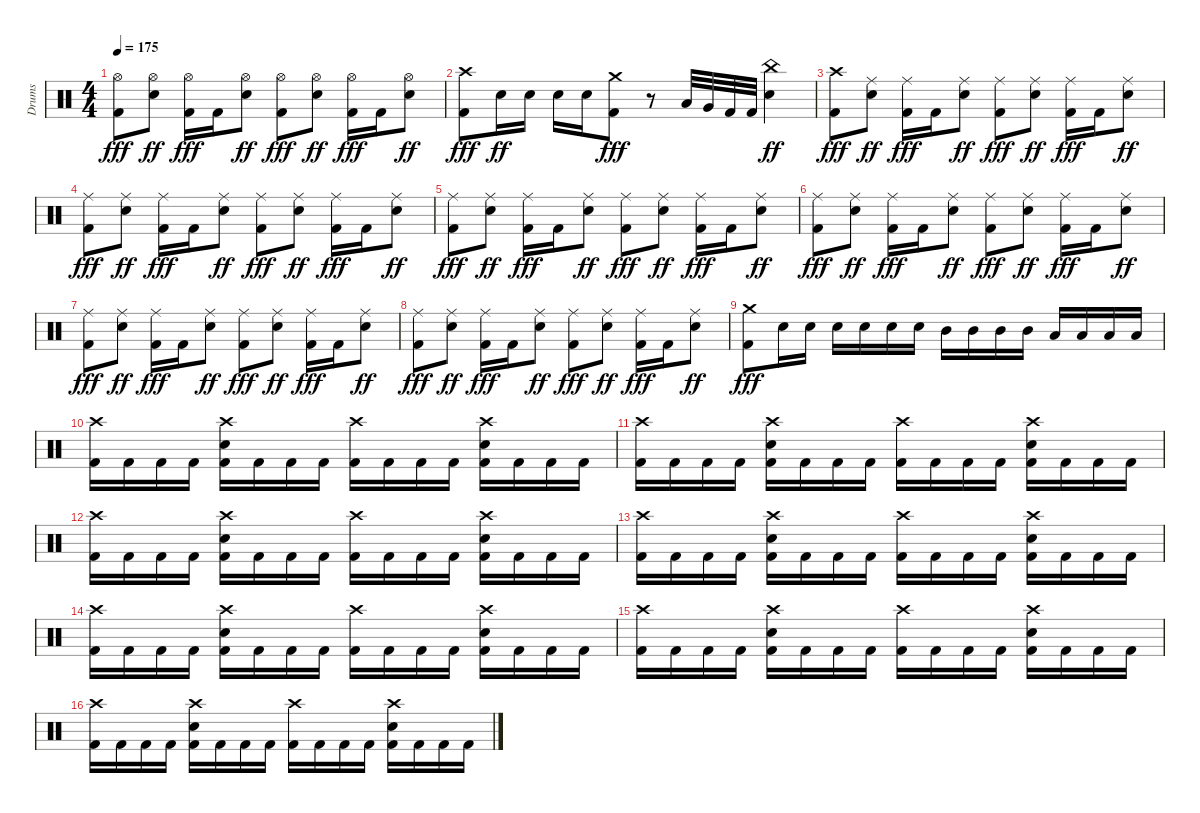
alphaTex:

\track ("Drums" "Drums") {instrument percussion}
\staff {score}
\articulation defaults
\ts (4 4)
\tempo 175
\clef neutral
\ks c
("Hi-Hat (open)" "Kick (hit) 2").8{dy fff} ("Hi-Hat (open)" "Snare (hit) 2").8{dy ff} ("Hi-Hat (open)" "Kick (hit) 2").16{dy fff} "Kick (hit) 2".16 ("Hi-Hat (open)" "Snare (hit) 2").8{dy ff} ("Hi-Hat (open)" "Kick (hit) 2").8{dy fff} ("Hi-Hat (open)" "Snare (hit) 2").8{dy ff} ("Hi-Hat (open)" "Kick (hit) 2").16{dy fff} "Kick (hit) 2".16 ("Hi-Hat (open)" "Snare (hit) 2").8{dy ff} |
("Crash high (hit)" "Kick (hit) 2").8{dy fff} "Snare (hit) 2".16{dy ff} "Snare (hit) 2".16 "Snare (hit) 2".16 "Snare (hit) 2".16 ("Crash medium (hit)" "Kick (hit) 2").8{dy fff} r.8 "Low Floor Tom (hit)".32 "Very Low Tom (hit)".32 "Kick (hit) 2".32 "Kick (hit) 2".32 ("China (hit)" "Snare (hit) 2").4{dy ff} |
("Crash high (hit)" "Kick (hit) 2").8{dy fff} ("Ride (middle)" "Snare (hit) 2").8{dy ff} ("Ride (middle)" "Kick (hit) 2").16{dy fff} "Kick (hit) 2".16 ("Ride (middle)" "Snare (hit) 2").8{dy ff} ("Ride (middle)" "Kick (hit) 2").8{dy fff} ("Ride (middle)" "Snare (hit) 2").8{dy ff} ("Ride (middle)" "Kick (hit) 2").16{dy fff} "Kick (hit) 2".16 ("Ride (middle)" "Snare (hit) 2").8{dy ff} |
("Ride (middle)" "Kick (hit) 2").8{dy fff} ("Ride (middle)" "Snare (hit) 2").8{dy ff} ("Ride (middle)" "Kick (hit) 2").16{dy fff} "Kick (hit) 2".16 ("Ride (middle)" "Snare (hit) 2").8{dy ff} ("Ride (middle)" "Kick (hit) 2").8{dy fff} ("Ride (middle)" "Snare (hit) 2").8{dy ff} ("Ride (middle)" "Kick (hit) 2").16{dy fff} "Kick (hit) 2".16 ("Ride (middle)" "Snare (hit) 2").8{dy ff} |
("Ride (middle)" "Kick (hit) 2").8{dy fff} ("Ride (middle)" "Snare (hit) 2").8{dy ff} ("Ride (middle)" "Kick (hit) 2").16{dy fff} "Kick (hit) 2".16 ("Ride (middle)" "Snare (hit) 2").8{dy ff} ("Ride (middle)" "Kick (hit) 2").8{dy fff} ("Ride (middle)" "Snare (hit) 2").8{dy ff} ("Ride (middle)" "Kick (hit) 2").16{dy fff} "Kick (hit) 2".16 ("Ride (middle)" "Snare (hit) 2").8{dy ff} |
("Ride (middle)" "Kick (hit) 2").8{dy fff} ("Ride (middle)" "Snare (hit) 2").8{dy ff} ("Ride (middle)" "Kick (hit) 2").16{dy fff} "Kick (hit) 2".16 ("Ride (middle)" "Snare (hit) 2").8{dy ff} ("Ride (middle)" "Kick (hit) 2").8{dy fff} ("Ride (middle)" "Snare (hit) 2").8{dy ff} ("Ride (middle)" "Kick (hit) 2").16{dy fff} "Kick (hit) 2".16 ("Ride (middle)" "Snare (hit) 2").8{dy ff} |
("Ride (middle)" "Kick (hit) 2").8{dy fff} ("Ride (middle)" "Snare (hit) 2").8{dy ff} ("Ride (middle)" "Kick (hit) 2").16{dy fff} "Kick (hit) 2".16 ("Ride (middle)" "Snare (hit) 2").8{dy ff} ("Ride (middle)" "Kick (hit) 2").8{dy fff} ("Ride (middle)" "Snare (hit) 2").8{dy ff} ("Ride (middle)" "Kick (hit) 2").16{dy fff} "Kick (hit) 2".16 ("Ride (middle)" "Snare (hit) 2").8{dy ff} |
("Ride (middle)" "Kick (hit) 2").8{dy fff} ("Ride (middle)" "Snare (hit) 2").8{dy ff} ("Ride (middle)" "Kick (hit) 2").16{dy fff} "Kick (hit) 2".16 ("Ride (middle)" "Snare (hit) 2").8{dy ff} ("Ride (middle)" "Kick (hit) 2").8{dy fff} ("Ride (middle)" "Snare (hit) 2").8{dy ff} ("Ride (middle)" "Kick (hit) 2").16{dy fff} "Kick (hit) 2".16 ("Ride (middle)" "Snare (hit) 2").8{dy ff} |
("Crash medium (hit)" "Kick (hit) 2").8{dy fff} "Snare (hit) 2".16 "Snare (hit) 2".16 "Snare (hit) 2".16 "Snare (hit) 2".16 "Snare (hit) 2".16 "Snare (hit) 2".16 "Mid Tom (hit)".16 "Mid Tom (hit)".16 "Mid Tom (hit)".16 "Mid Tom (hit)".16 "Low Tom (hit)".16 "Low Tom (hit)".16 "Low Tom (hit)".16 "Low Tom (hit)".16 |
("Crash high (hit)" "Kick (hit) 2").16 "Kick (hit) 2".16 "Kick (hit) 2".16 "Kick (hit) 2".16 ("Crash high (hit)" "Snare (hit) 2" "Kick (hit) 2").16 "Kick (hit) 2".16 "Kick (hit) 2".16 "Kick (hit) 2".16 ("Crash high (hit)" "Kick (hit) 2").16 "Kick (hit) 2".16 "Kick (hit) 2".16 "Kick (hit) 2".16 ("Crash high (hit)" "Snare (hit) 2" "Kick (hit) 2").16 "Kick (hit) 2".16 "Kick (hit) 2".16 "Kick (hit) 2".16 |
("Crash high (hit)" "Kick (hit) 2").16 "Kick (hit) 2".16 "Kick (hit) 2".16 "Kick (hit) 2".16 ("Crash high (hit)" "Snare (hit) 2" "Kick (hit) 2").16 "Kick (hit) 2".16 "Kick (hit) 2".16 "Kick (hit) 2".16 ("Crash high (hit)" "Kick (hit) 2").16 "Kick (hit) 2".16 "Kick (hit) 2".16 "Kick (hit) 2".16 ("Crash high (hit)" "Snare (hit) 2" "Kick (hit) 2").16 "Kick (hit) 2".16 "Kick (hit) 2".16 "Kick (hit) 2".16 |
("Crash high (hit)" "Kick (hit) 2").16 "Kick (hit) 2".16 "Kick (hit) 2".16 "Kick (hit) 2".16 ("Crash high (hit)" "Snare (hit) 2" "Kick (hit) 2").16 "Kick (hit) 2".16 "Kick (hit) 2".16 "Kick (hit) 2".16 ("Crash high (hit)" "Kick (hit) 2").16 "Kick (hit) 2".16 "Kick (hit) 2".16 "Kick (hit) 2".16 ("Crash high (hit)" "Snare (hit) 2" "Kick (hit) 2").16 "Kick (hit) 2".16 "Kick (hit) 2".16 "Kick (hit) 2".16 |
("Crash high (hit)" "Kick (hit) 2").16 "Kick (hit) 2".16 "Kick (hit) 2".16 "Kick (hit) 2".16 ("Crash high (hit)" "Snare (hit) 2" "Kick (hit) 2").16 "Kick (hit) 2".16 "Kick (hit) 2".16 "Kick (hit) 2".16 ("Crash high (hit)" "Kick (hit) 2").16 "Kick (hit) 2".16 "Kick (hit) 2".16 "Kick (hit) 2".16 ("Crash high (hit)" "Snare (hit) 2" "Kick (hit) 2").16 "Kick (hit) 2".16 "Kick (hit) 2".16 "Kick (hit) 2".16 |
("Crash high (hit)" "Kick (hit) 2").16 "Kick (hit) 2".16 "Kick (hit) 2".16 "Kick (hit) 2".16 ("Crash high (hit)" "Snare (hit) 2" "Kick (hit) 2").16 "Kick (hit) 2".16 "Kick (hit) 2".16 "Kick (hit) 2".16 ("Crash high (hit)" "Kick (hit) 2").16 "Kick (hit) 2".16 "Kick (hit) 2".16 "Kick (hit) 2".16 ("Crash high (hit)" "Snare (hit) 2" "Kick (hit) 2").16 "Kick (hit) 2".16 "Kick (hit) 2".16 "Kick (hit) 2".16 |
("Crash high (hit)" "Kick (hit) 2").16 "Kick (hit) 2".16 "Kick (hit) 2".16 "Kick (hit) 2".16 ("Crash high (hit)" "Snare (hit) 2" "Kick (hit) 2").16 "Kick (hit) 2".16 "Kick (hit) 2".16 "Kick (hit) 2".16 ("Crash high (hit)" "Kick (hit) 2").16 "Kick (hit) 2".16 "Kick (hit) 2".16 "Kick (hit) 2".16 ("Crash high (hit)" "Snare (hit) 2" "Kick (hit) 2").16 "Kick (hit) 2".16 "Kick (hit) 2".16 "Kick (hit) 2".16 |
("Crash high (hit)" "Kick (hit) 2").16 "Kick (hit) 2".16 "Kick (hit) 2".16 "Kick (hit) 2".16 ("Crash high (hit)" "Snare (hit) 2" "Kick (hit) 2").16 "Kick (hit) 2".16 "Kick (hit) 2".16 "Kick (hit) 2".16 ("Crash high (hit)" "Kick (hit) 2").16 "Kick (hit) 2".16 "Kick (hit) 2".16 "Kick (hit) 2".16 ("Crash high (hit)" "Snare (hit) 2" "Kick (hit) 2").16 "Kick (hit) 2".16 "Kick (hit) 2".16 "Kick (hit) 2".16
